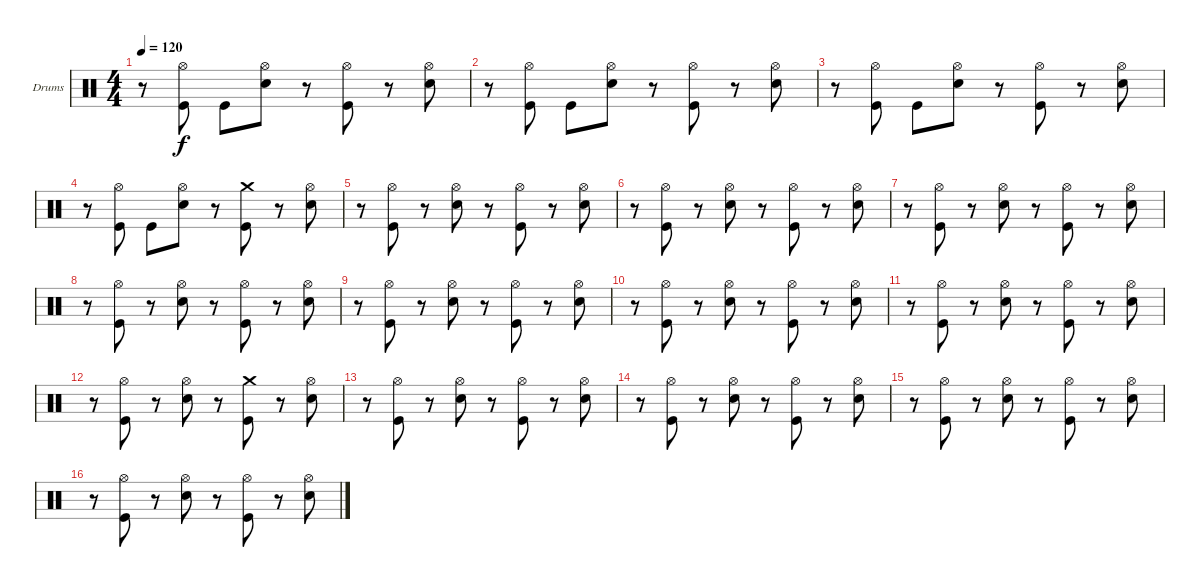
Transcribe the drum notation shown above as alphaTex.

\defaultSystemsLayout 4
\bracketExtendMode groupsimilarinstruments
\firstSystemTrackNameOrientation horizontal
\otherSystemsTrackNameOrientation horizontal
\track ("Drumkit" "Drums") {instrument percussion}
\staff {score}
\articulation defaults
\ts (4 4)
\tempo 120
\clef neutral
\ks c
r.8{dy f} ("Kick (hit)" "Hi-Hat (open)").8 "Kick (hit)".8 ("Snare (hit) 2" "Hi-Hat (open)").8 r.8 ("Kick (hit)" "Hi-Hat (open)").8 r.8 ("Snare (hit) 2" "Hi-Hat (open)").8 |
r.8 ("Kick (hit)" "Hi-Hat (open)").8 "Kick (hit)".8 ("Snare (hit) 2" "Hi-Hat (open)").8 r.8 ("Kick (hit)" "Hi-Hat (open)").8 r.8 ("Snare (hit) 2" "Hi-Hat (open)").8 |
r.8 ("Kick (hit)" "Hi-Hat (open)").8 "Kick (hit)".8 ("Snare (hit) 2" "Hi-Hat (open)").8 r.8 ("Kick (hit)" "Hi-Hat (open)").8 r.8 ("Snare (hit) 2" "Hi-Hat (open)").8 |
r.8 ("Kick (hit)" "Hi-Hat (open)").8 "Kick (hit)".8 ("Snare (hit) 2" "Hi-Hat (open)").8 r.8 ("Kick (hit)" "Crash medium (hit)").8 r.8 ("Snare (hit) 2" "Hi-Hat (open)").8 |
r.8 ("Kick (hit)" "Hi-Hat (open)").8 r.8 ("Snare (hit) 2" "Hi-Hat (open)").8 r.8 ("Kick (hit)" "Hi-Hat (open)").8 r.8 ("Snare (hit) 2" "Hi-Hat (open)").8 |
r.8 ("Kick (hit)" "Hi-Hat (open)").8 r.8 ("Snare (hit) 2" "Hi-Hat (open)").8 r.8 ("Kick (hit)" "Hi-Hat (open)").8 r.8 ("Snare (hit) 2" "Hi-Hat (open)").8 |
r.8 ("Kick (hit)" "Hi-Hat (open)").8 r.8 ("Snare (hit) 2" "Hi-Hat (open)").8 r.8 ("Kick (hit)" "Hi-Hat (open)").8 r.8 ("Snare (hit) 2" "Hi-Hat (open)").8 |
r.8 ("Kick (hit)" "Hi-Hat (open)").8 r.8 ("Snare (hit) 2" "Hi-Hat (open)").8 r.8 ("Kick (hit)" "Hi-Hat (open)").8 r.8 ("Snare (hit) 2" "Hi-Hat (open)").8 |
r.8 ("Kick (hit)" "Hi-Hat (open)").8 r.8 ("Snare (hit) 2" "Hi-Hat (open)").8 r.8 ("Kick (hit)" "Hi-Hat (open)").8 r.8 ("Snare (hit) 2" "Hi-Hat (open)").8 |
r.8 ("Kick (hit)" "Hi-Hat (open)").8 r.8 ("Snare (hit) 2" "Hi-Hat (open)").8 r.8 ("Kick (hit)" "Hi-Hat (open)").8 r.8 ("Snare (hit) 2" "Hi-Hat (open)").8 |
r.8 ("Kick (hit)" "Hi-Hat (open)").8 r.8 ("Snare (hit) 2" "Hi-Hat (open)").8 r.8 ("Kick (hit)" "Hi-Hat (open)").8 r.8 ("Snare (hit) 2" "Hi-Hat (open)").8 |
r.8 ("Kick (hit)" "Hi-Hat (open)").8 r.8 ("Snare (hit) 2" "Hi-Hat (open)").8 r.8 ("Kick (hit)" "Crash medium (hit)").8 r.8 ("Snare (hit) 2" "Hi-Hat (open)").8 |
r.8 ("Kick (hit)" "Hi-Hat (open)").8 r.8 ("Snare (hit) 2" "Hi-Hat (open)").8 r.8 ("Kick (hit)" "Hi-Hat (open)").8 r.8 ("Snare (hit) 2" "Hi-Hat (open)").8 |
r.8 ("Kick (hit)" "Hi-Hat (open)").8 r.8 ("Snare (hit) 2" "Hi-Hat (open)").8 r.8 ("Kick (hit)" "Hi-Hat (open)").8 r.8 ("Snare (hit) 2" "Hi-Hat (open)").8 |
r.8 ("Kick (hit)" "Hi-Hat (open)").8 r.8 ("Snare (hit) 2" "Hi-Hat (open)").8 r.8 ("Kick (hit)" "Hi-Hat (open)").8 r.8 ("Snare (hit) 2" "Hi-Hat (open)").8 |
r.8 ("Kick (hit)" "Hi-Hat (open)").8 r.8 ("Snare (hit) 2" "Hi-Hat (open)").8 r.8 ("Kick (hit)" "Hi-Hat (open)").8 r.8 ("Snare (hit) 2" "Hi-Hat (open)").8
